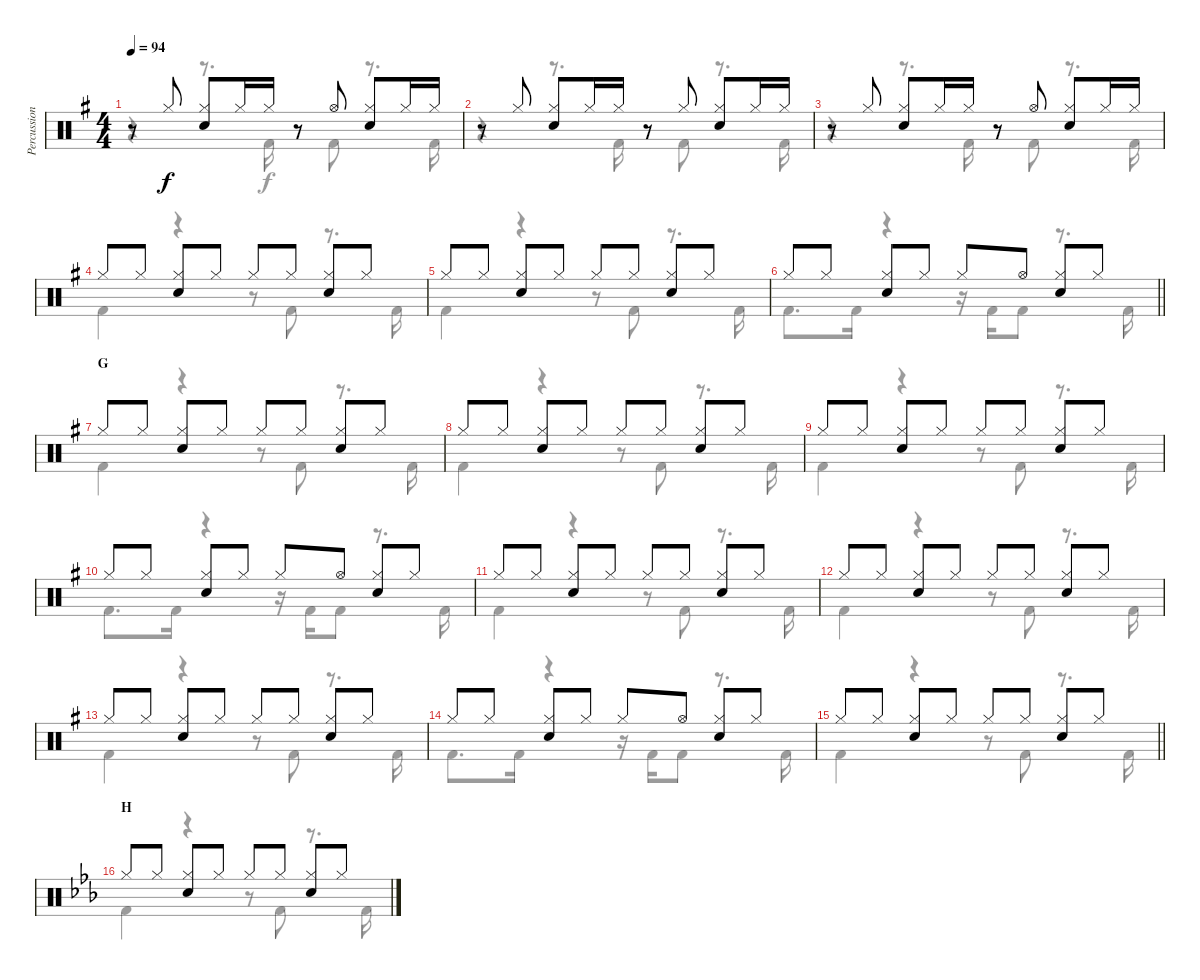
\track ("Percussion" "Percussion") {instrument percussion}
\staff {score}
\articulation defaults
\voice
\ts (4 4)
\tempo 94
\clef neutral
\ks g
r.8{dy f} "Hi-Hat (closed)".8 ("Hi-Hat (closed)" "Electric Snare (hit)").8 "Hi-Hat (closed)".16 "Hi-Hat (closed)".16 r.8 "Hi-Hat (open)".8 ("Hi-Hat (closed)" "Electric Snare (hit)").8 "Hi-Hat (closed)".16 "Hi-Hat (closed)".16 |
r.8 "Hi-Hat (closed)".8 ("Hi-Hat (closed)" "Electric Snare (hit)").8 "Hi-Hat (closed)".16 "Hi-Hat (closed)".16 r.8 "Hi-Hat (closed)".8 ("Hi-Hat (closed)" "Electric Snare (hit)").8 "Hi-Hat (closed)".16 "Hi-Hat (closed)".16 |
r.8 "Hi-Hat (closed)".8 ("Hi-Hat (closed)" "Electric Snare (hit)").8 "Hi-Hat (closed)".16 "Hi-Hat (closed)".16 r.8 "Hi-Hat (open)".8 ("Hi-Hat (closed)" "Electric Snare (hit)").8 "Hi-Hat (closed)".16 "Hi-Hat (closed)".16 |
"Hi-Hat (closed)".8 "Hi-Hat (closed)".8 ("Hi-Hat (closed)" "Electric Snare (hit)").8 "Hi-Hat (closed)".8 "Hi-Hat (closed)".8 "Hi-Hat (closed)".8 ("Hi-Hat (closed)" "Electric Snare (hit)").8 "Hi-Hat (closed)".8 |
"Hi-Hat (closed)".8 "Hi-Hat (closed)".8 ("Hi-Hat (closed)" "Electric Snare (hit)").8 "Hi-Hat (closed)".8 "Hi-Hat (closed)".8 "Hi-Hat (closed)".8 ("Hi-Hat (closed)" "Electric Snare (hit)").8 "Hi-Hat (closed)".8 |
\barLineRight lightlight "Hi-Hat (closed)".8 "Hi-Hat (closed)".8
("Hi-Hat (closed)" "Electric Snare (hit)").8 "Hi-Hat (closed)".8 "Hi-Hat (closed)".8 "Hi-Hat (open)".8 ("Hi-Hat (closed)" "Electric Snare (hit)").8 "Hi-Hat (closed)".8 |
\section ("" "G")
"Hi-Hat (closed)".8 "Hi-Hat (closed)".8 ("Hi-Hat (closed)" "Electric Snare (hit)").8 "Hi-Hat (closed)".8 "Hi-Hat (closed)".8 "Hi-Hat (closed)".8 ("Hi-Hat (closed)" "Electric Snare (hit)").8 "Hi-Hat (closed)".8 |
"Hi-Hat (closed)".8 "Hi-Hat (closed)".8 ("Hi-Hat (closed)" "Electric Snare (hit)").8 "Hi-Hat (closed)".8 "Hi-Hat (closed)".8 "Hi-Hat (closed)".8 ("Hi-Hat (closed)" "Electric Snare (hit)").8 "Hi-Hat (closed)".8 |
"Hi-Hat (closed)".8 "Hi-Hat (closed)".8 ("Hi-Hat (closed)" "Electric Snare (hit)").8 "Hi-Hat (closed)".8 "Hi-Hat (closed)".8 "Hi-Hat (closed)".8 ("Hi-Hat (closed)" "Electric Snare (hit)").8 "Hi-Hat (closed)".8 |
"Hi-Hat (closed)".8 "Hi-Hat (closed)".8 ("Hi-Hat (closed)" "Electric Snare (hit)").8 "Hi-Hat (closed)".8 "Hi-Hat (closed)".8 "Hi-Hat (open)".8 ("Hi-Hat (closed)" "Electric Snare (hit)").8 "Hi-Hat (closed)".8 |
"Hi-Hat (closed)".8 "Hi-Hat (closed)".8 ("Hi-Hat (closed)" "Electric Snare (hit)").8 "Hi-Hat (closed)".8 "Hi-Hat (closed)".8 "Hi-Hat (closed)".8 ("Hi-Hat (closed)" "Electric Snare (hit)").8 "Hi-Hat (closed)".8 |
"Hi-Hat (closed)".8 "Hi-Hat (closed)".8 ("Hi-Hat (closed)" "Electric Snare (hit)").8 "Hi-Hat (closed)".8 "Hi-Hat (closed)".8 "Hi-Hat (closed)".8 ("Hi-Hat (closed)" "Electric Snare (hit)").8 "Hi-Hat (closed)".8 |
"Hi-Hat (closed)".8 "Hi-Hat (closed)".8 ("Hi-Hat (closed)" "Electric Snare (hit)").8 "Hi-Hat (closed)".8 "Hi-Hat (closed)".8 "Hi-Hat (closed)".8 ("Hi-Hat (closed)" "Electric Snare (hit)").8 "Hi-Hat (closed)".8 |
"Hi-Hat (closed)".8 "Hi-Hat (closed)".8 ("Hi-Hat (closed)" "Electric Snare (hit)").8 "Hi-Hat (closed)".8 "Hi-Hat (closed)".8 "Hi-Hat (open)".8 ("Hi-Hat (closed)" "Electric Snare (hit)").8 "Hi-Hat (closed)".8 |
\barLineRight lightlight "Hi-Hat (closed)".8 "Hi-Hat (closed)".8
("Hi-Hat (closed)" "Electric Snare (hit)").8 "Hi-Hat (closed)".8 "Hi-Hat (closed)".8 "Hi-Hat (closed)".8 ("Hi-Hat (closed)" "Electric Snare (hit)").8 "Hi-Hat (closed)".8 |
\section ("" "H")
\ks eb "Hi-Hat (closed)".8 "Hi-Hat (closed)".8
("Hi-Hat (closed)" "Electric Snare (hit)").8 "Hi-Hat (closed)".8 "Hi-Hat (closed)".8 "Hi-Hat (closed)".8 ("Hi-Hat (closed)" "Electric Snare (hit)").8 "Hi-Hat (closed)".8
\voice
\clef neutral
\ottava regular
\simile none
\ks g
r.4{dy f} r.8{d} "Kick (hit) 2".16 r.8 "Kick (hit) 2".8 r.8{d} "Kick (hit) 2".16 |
r.4 r.8{d} "Kick (hit) 2".16 r.8 "Kick (hit) 2".8 r.8{d} "Kick (hit) 2".16 |
r.4 r.8{d} "Kick (hit) 2".16 r.8 "Kick (hit) 2".8 r.8{d} "Kick (hit) 2".16 |
"Kick (hit) 2".4 r.4 r.8 "Kick (hit) 2".8 r.8{d} "Kick (hit) 2".16 |
"Kick (hit) 2".4 r.4 r.8 "Kick (hit) 2".8 r.8{d} "Kick (hit) 2".16 |
\barLineRight lightlight "Kick (hit) 2".8{d} "Kick (hit) 2".16
r.4 r.16 "Kick (hit) 2".16 "Kick (hit) 2".8 r.8{d} "Kick (hit) 2".16 |
"Kick (hit) 2".4 r.4 r.8 "Kick (hit) 2".8 r.8{d} "Kick (hit) 2".16 |
"Kick (hit) 2".4 r.4 r.8 "Kick (hit) 2".8 r.8{d} "Kick (hit) 2".16 |
"Kick (hit) 2".4 r.4 r.8 "Kick (hit) 2".8 r.8{d} "Kick (hit) 2".16 |
"Kick (hit) 2".8{d} "Kick (hit) 2".16 r.4 r.16 "Kick (hit) 2".16 "Kick (hit) 2".8 r.8{d} "Kick (hit) 2".16 |
"Kick (hit) 2".4 r.4 r.8 "Kick (hit) 2".8 r.8{d} "Kick (hit) 2".16 |
"Kick (hit) 2".4 r.4 r.8 "Kick (hit) 2".8 r.8{d} "Kick (hit) 2".16 |
"Kick (hit) 2".4 r.4 r.8 "Kick (hit) 2".8 r.8{d} "Kick (hit) 2".16 |
"Kick (hit) 2".8{d} "Kick (hit) 2".16 r.4 r.16 "Kick (hit) 2".16 "Kick (hit) 2".8 r.8{d} "Kick (hit) 2".16 |
\barLineRight lightlight "Kick (hit) 2".4
r.4 r.8 "Kick (hit) 2".8 r.8{d} "Kick (hit) 2".16 |
\ks eb "Kick (hit) 2".4
r.4 r.8 "Kick (hit) 2".8 r.8{d} "Kick (hit) 2".16
